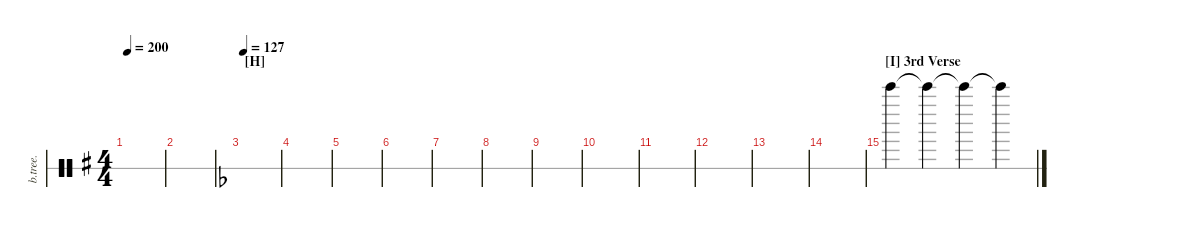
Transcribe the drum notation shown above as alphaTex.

\defaultSystemsLayout 4
\hideDynamics
\bracketExtendMode nobrackets
\track ("Bell Tree" "b.tree.") {instrument percussion}
\staff {score 1}
\articulation defaults
\ts (4 4)
\tempo 200
\clef neutral
\ks g
|
|
\section ("H" "")
\tempo 127
\ks f
|
|
|
|
|
|
|
|
|
|
|
|
\section ("I" "3rd Verse")
"Bell Tree (hit)"{acc forcenatural}.4 "Bell Tree (hit)"{t acc forcenatural}.4 "Bell Tree (hit)"{t acc forcenatural}.4 "Bell Tree (hit)"{t acc forcenatural}.4
